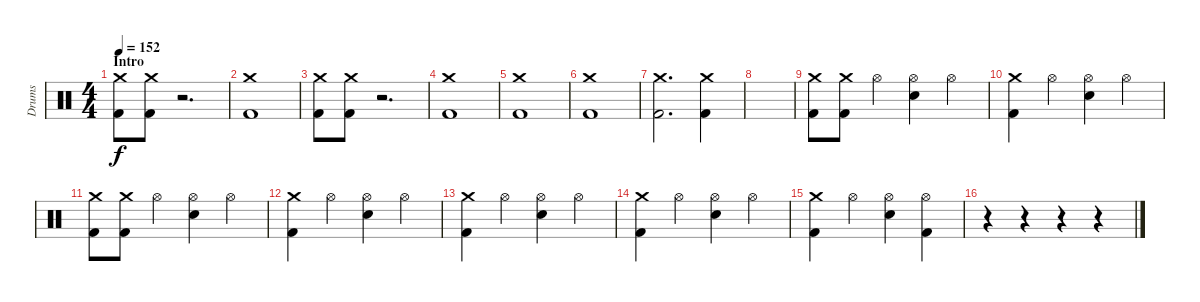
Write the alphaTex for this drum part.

\track ("Drums" "Drums") {instrument percussion}
\staff {score}
\articulation defaults
\ts (4 4)
\section ("" "Intro")
\tempo 152
\clef neutral
\ks c
("Crash medium (hit)" "Kick (hit) 2").8{dy f} ("Crash medium (hit)" "Kick (hit) 2").8 r.2{d} |
("Crash medium (hit)" "Kick (hit) 2").1 |
("Crash medium (hit)" "Kick (hit) 2").8 ("Crash medium (hit)" "Kick (hit) 2").8 r.2{d} |
("Crash medium (hit)" "Kick (hit) 2").1 |
("Crash medium (hit)" "Kick (hit) 2").1 |
("Crash medium (hit)" "Kick (hit) 2").1 |
("Crash medium (hit)" "Kick (hit) 2").2{d} ("Crash medium (hit)" "Kick (hit) 2").4 |
|
("Crash medium (hit)" "Kick (hit) 2").8 ("Crash medium (hit)" "Kick (hit) 2").8 "Hi-Hat (open)".4 ("Hi-Hat (open)" "Electric Snare (hit)").4 "Hi-Hat (open)".4 |
("Crash medium (hit)" "Kick (hit) 2").4 "Hi-Hat (open)".4 ("Hi-Hat (open)" "Electric Snare (hit)").4 "Hi-Hat (open)".4 |
("Crash medium (hit)" "Kick (hit) 2").8 ("Crash medium (hit)" "Kick (hit) 2").8 "Hi-Hat (open)".4 ("Hi-Hat (open)" "Electric Snare (hit)").4 "Hi-Hat (open)".4 |
("Crash medium (hit)" "Kick (hit) 2").4 "Hi-Hat (open)".4 ("Hi-Hat (open)" "Electric Snare (hit)").4 "Hi-Hat (open)".4 |
("Crash medium (hit)" "Kick (hit) 2").4 "Hi-Hat (open)".4 ("Hi-Hat (open)" "Electric Snare (hit)").4 "Hi-Hat (open)".4 |
("Crash medium (hit)" "Kick (hit) 2").4 "Hi-Hat (open)".4 ("Hi-Hat (open)" "Electric Snare (hit)").4 "Hi-Hat (open)".4 |
("Crash medium (hit)" "Kick (hit) 2").4 "Hi-Hat (open)".4 ("Hi-Hat (open)" "Electric Snare (hit)").4 ("Hi-Hat (open)" "Kick (hit) 2").4 |
r.4 r.4 r.4 r.4
